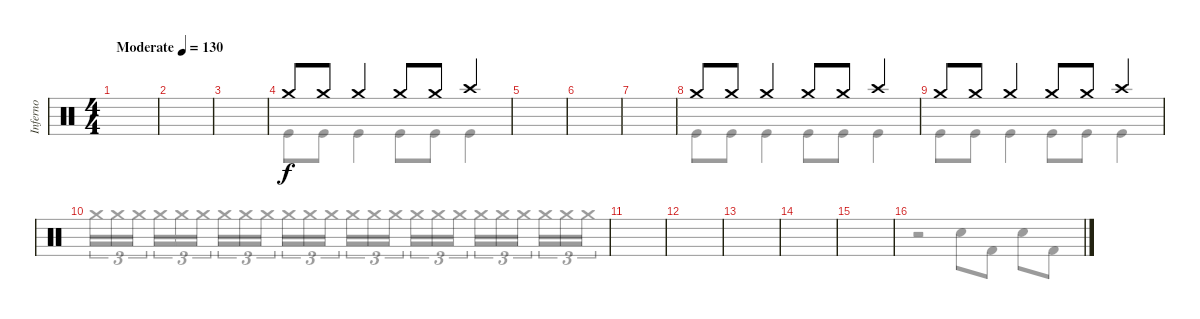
\track ("Inferno" "Inferno") {instrument percussion}
\staff {score}
\articulation defaults
\voice
\ts (4 4)
\tempo (130 "Moderate")
\clef neutral
\ks c
|
|
|
"Crash medium (hit)".8 "Crash medium (hit)".8 "Crash medium (hit)".4 "Crash medium (hit)".8 "Crash medium (hit)".8 "Crash high (hit)".4 |
|
|
|
"Crash medium (hit)".8 "Crash medium (hit)".8 "Crash medium (hit)".4 "Crash medium (hit)".8 "Crash medium (hit)".8 "Crash high (hit)".4 |
"Crash medium (hit)".8 "Crash medium (hit)".8 "Crash medium (hit)".4 "Crash medium (hit)".8 "Crash medium (hit)".8 "Crash high (hit)".4 |
|
|
|
|
|
|
\voice
\clef neutral
\ottava regular
\simile none
\ks c
|
|
|
"Kick (hit)".8 "Kick (hit)".8 "Kick (hit)".4 "Kick (hit)".8 "Kick (hit)".8 "Kick (hit)".4 |
|
|
|
"Kick (hit)".8 "Kick (hit)".8 "Kick (hit)".4 "Kick (hit)".8 "Kick (hit)".8 "Kick (hit)".4 |
"Kick (hit)".8 "Kick (hit)".8 "Kick (hit)".4 "Kick (hit)".8 "Kick (hit)".8 "Kick (hit)".4 |
"Crash medium (hit)".16{tu (3 2)} "Crash medium (hit)".16{tu (3 2)} "Crash medium (hit)".16{tu (3 2) beam splitsecondary} "Crash medium (hit)".16{tu (3 2)} "Crash medium (hit)".16{tu (3 2)} "Crash medium (hit)".16{tu (3 2)} "Crash medium (hit)".16{tu (3 2)} "Crash medium (hit)".16{tu (3 2)} "Crash medium (hit)".16{tu (3 2) beam splitsecondary} "Crash medium (hit)".16{tu (3 2)} "Crash medium (hit)".16{tu (3 2)} "Crash medium (hit)".16{tu (3 2)} "Crash medium (hit)".16{tu (3 2)} "Crash medium (hit)".16{tu (3 2)} "Crash medium (hit)".16{tu (3 2) beam splitsecondary} "Crash medium (hit)".16{tu (3 2)} "Crash medium (hit)".16{tu (3 2)} "Crash medium (hit)".16{tu (3 2)} "Crash medium (hit)".16{tu (3 2)} "Crash medium (hit)".16{tu (3 2)} "Crash medium (hit)".16{tu (3 2) beam splitsecondary} "Crash medium (hit)".16{tu (3 2)} "Crash medium (hit)".16{tu (3 2)} "Crash medium (hit)".16{tu (3 2)} |
|
|
|
|
|
r.2 "Snare (hit) 2".8 "Kick (hit) 2".8 "Snare (hit) 2".8 "Kick (hit) 2".8
